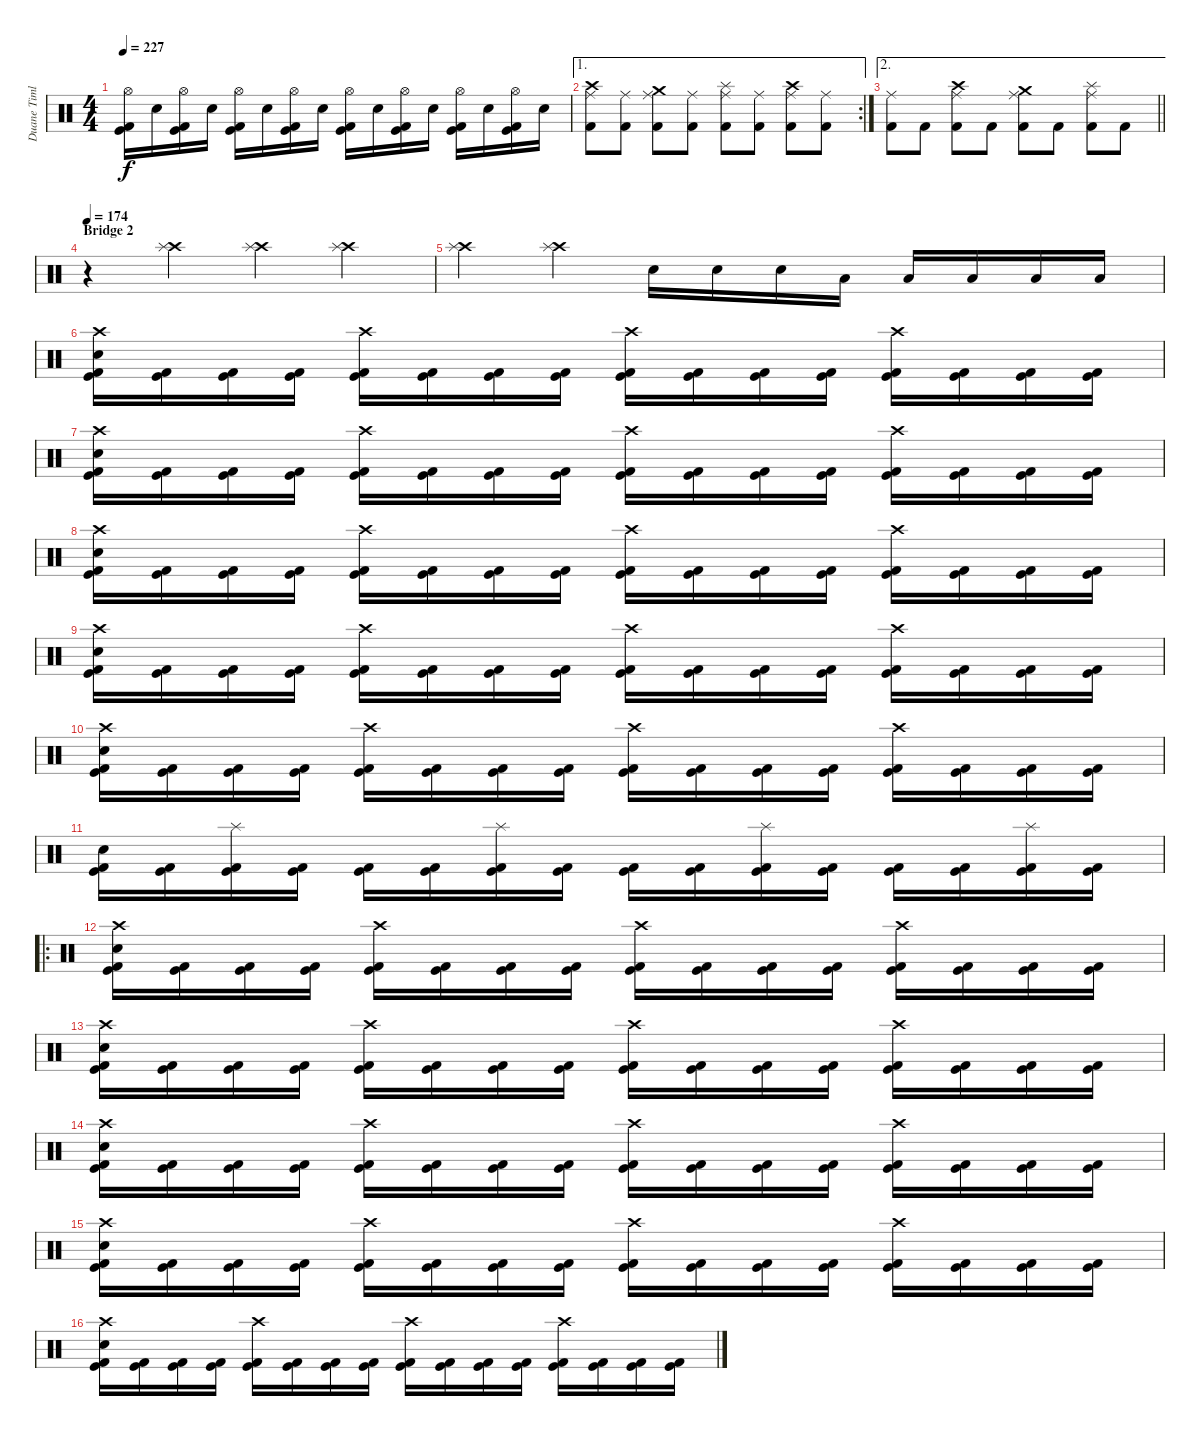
\track ("Duane Timlin" "Duane Timl") {instrument percussion}
\staff {score}
\articulation defaults
\ts (4 4)
\tempo 227
\clef neutral
\ks c
("Hi-Hat (open)" "Kick (hit)" "Kick (hit) 2").16{dy f} "Snare (hit) 2".16 ("Hi-Hat (open)" "Kick (hit)" "Kick (hit) 2").16 "Snare (hit) 2".16 ("Hi-Hat (open)" "Kick (hit)" "Kick (hit) 2").16 "Snare (hit) 2".16 ("Hi-Hat (open)" "Kick (hit)" "Kick (hit) 2").16 "Snare (hit) 2".16 ("Hi-Hat (open)" "Kick (hit)" "Kick (hit) 2").16 "Snare (hit) 2".16 ("Hi-Hat (open)" "Kick (hit)" "Kick (hit) 2").16 "Snare (hit) 2".16 ("Hi-Hat (open)" "Kick (hit)" "Kick (hit) 2").16 "Snare (hit) 2".16 ("Hi-Hat (open)" "Kick (hit)" "Kick (hit) 2").16 "Snare (hit) 2".16 |
\ae 1
\rc 2
("Crash high (hit)" "Ride (middle)" "Kick (hit) 2").8 ("Ride (middle)" "Kick (hit) 2").8 ("Crash medium (hit)" "Ride (middle)" "Kick (hit) 2").8 ("Ride (middle)" "Kick (hit) 2").8 ("Splash (hit)" "Ride (middle)" "Kick (hit) 2").8 ("Ride (middle)" "Kick (hit) 2").8 ("Crash high (hit)" "Ride (middle)" "Kick (hit) 2").8 ("Ride (middle)" "Kick (hit) 2").8 |
\ae 2
\barLineRight lightlight
("Ride (middle)" "Kick (hit) 2").8 "Kick (hit) 2".8 ("Crash high (hit)" "Ride (middle)" "Kick (hit) 2").8 "Kick (hit) 2".8 ("Crash medium (hit)" "Ride (middle)" "Kick (hit) 2").8 "Kick (hit) 2".8 ("Splash (hit)" "Ride (middle)" "Kick (hit) 2").8 "Kick (hit) 2".8 |
\section ("" "Bridge 2")
\tempo 174
r.4 ("Crash high (hit)" "Splash (hit)").4 ("Crash high (hit)" "Splash (hit)").4 ("Crash high (hit)" "Splash (hit)").4 |
("Crash high (hit)" "Splash (hit)").4 ("Crash high (hit)" "Splash (hit)").4 "Snare (hit) 2".16 "Snare (hit) 2".16 "Snare (hit) 2".16 "Low Floor Tom (hit)".16 "Low Floor Tom (hit)".16 "Low Floor Tom (hit)".16 "Low Floor Tom (hit)".16 "Low Floor Tom (hit)".16 |
("Crash high (hit)" "Snare (hit) 2" "Kick (hit)" "Kick (hit) 2").16 ("Kick (hit)" "Kick (hit) 2").16 ("Kick (hit)" "Kick (hit) 2").16 ("Kick (hit)" "Kick (hit) 2").16 ("Crash high (hit)" "Kick (hit)" "Kick (hit) 2").16 ("Kick (hit)" "Kick (hit) 2").16 ("Kick (hit)" "Kick (hit) 2").16 ("Kick (hit)" "Kick (hit) 2").16 ("Crash high (hit)" "Kick (hit)" "Kick (hit) 2").16 ("Kick (hit)" "Kick (hit) 2").16 ("Kick (hit)" "Kick (hit) 2").16 ("Kick (hit)" "Kick (hit) 2").16 ("Crash high (hit)" "Kick (hit)" "Kick (hit) 2").16 ("Kick (hit)" "Kick (hit) 2").16 ("Kick (hit)" "Kick (hit) 2").16 ("Kick (hit)" "Kick (hit) 2").16 |
("Crash high (hit)" "Snare (hit) 2" "Kick (hit)" "Kick (hit) 2").16 ("Kick (hit)" "Kick (hit) 2").16 ("Kick (hit)" "Kick (hit) 2").16 ("Kick (hit)" "Kick (hit) 2").16 ("Crash high (hit)" "Kick (hit)" "Kick (hit) 2").16 ("Kick (hit)" "Kick (hit) 2").16 ("Kick (hit)" "Kick (hit) 2").16 ("Kick (hit)" "Kick (hit) 2").16 ("Crash high (hit)" "Kick (hit)" "Kick (hit) 2").16 ("Kick (hit)" "Kick (hit) 2").16 ("Kick (hit)" "Kick (hit) 2").16 ("Kick (hit)" "Kick (hit) 2").16 ("Crash high (hit)" "Kick (hit)" "Kick (hit) 2").16 ("Kick (hit)" "Kick (hit) 2").16 ("Kick (hit)" "Kick (hit) 2").16 ("Kick (hit)" "Kick (hit) 2").16 |
("Crash high (hit)" "Snare (hit) 2" "Kick (hit)" "Kick (hit) 2").16 ("Kick (hit)" "Kick (hit) 2").16 ("Kick (hit)" "Kick (hit) 2").16 ("Kick (hit)" "Kick (hit) 2").16 ("Crash high (hit)" "Kick (hit)" "Kick (hit) 2").16 ("Kick (hit)" "Kick (hit) 2").16 ("Kick (hit)" "Kick (hit) 2").16 ("Kick (hit)" "Kick (hit) 2").16 ("Crash high (hit)" "Kick (hit)" "Kick (hit) 2").16 ("Kick (hit)" "Kick (hit) 2").16 ("Kick (hit)" "Kick (hit) 2").16 ("Kick (hit)" "Kick (hit) 2").16 ("Crash high (hit)" "Kick (hit)" "Kick (hit) 2").16 ("Kick (hit)" "Kick (hit) 2").16 ("Kick (hit)" "Kick (hit) 2").16 ("Kick (hit)" "Kick (hit) 2").16 |
("Crash high (hit)" "Snare (hit) 2" "Kick (hit)" "Kick (hit) 2").16 ("Kick (hit)" "Kick (hit) 2").16 ("Kick (hit)" "Kick (hit) 2").16 ("Kick (hit)" "Kick (hit) 2").16 ("Crash high (hit)" "Kick (hit)" "Kick (hit) 2").16 ("Kick (hit)" "Kick (hit) 2").16 ("Kick (hit)" "Kick (hit) 2").16 ("Kick (hit)" "Kick (hit) 2").16 ("Crash high (hit)" "Kick (hit)" "Kick (hit) 2").16 ("Kick (hit)" "Kick (hit) 2").16 ("Kick (hit)" "Kick (hit) 2").16 ("Kick (hit)" "Kick (hit) 2").16 ("Crash high (hit)" "Kick (hit)" "Kick (hit) 2").16 ("Kick (hit)" "Kick (hit) 2").16 ("Kick (hit)" "Kick (hit) 2").16 ("Kick (hit)" "Kick (hit) 2").16 |
("Crash high (hit)" "Snare (hit) 2" "Kick (hit)" "Kick (hit) 2").16 ("Kick (hit)" "Kick (hit) 2").16 ("Kick (hit)" "Kick (hit) 2").16 ("Kick (hit)" "Kick (hit) 2").16 ("Crash high (hit)" "Kick (hit)" "Kick (hit) 2").16 ("Kick (hit)" "Kick (hit) 2").16 ("Kick (hit)" "Kick (hit) 2").16 ("Kick (hit)" "Kick (hit) 2").16 ("Crash high (hit)" "Kick (hit)" "Kick (hit) 2").16 ("Kick (hit)" "Kick (hit) 2").16 ("Kick (hit)" "Kick (hit) 2").16 ("Kick (hit)" "Kick (hit) 2").16 ("Crash high (hit)" "Kick (hit)" "Kick (hit) 2").16 ("Kick (hit)" "Kick (hit) 2").16 ("Kick (hit)" "Kick (hit) 2").16 ("Kick (hit)" "Kick (hit) 2").16 |
("Snare (hit) 2" "Kick (hit)" "Kick (hit) 2").16 ("Kick (hit)" "Kick (hit) 2").16 ("Splash (hit)" "Kick (hit)" "Kick (hit) 2").16 ("Kick (hit)" "Kick (hit) 2").16 ("Kick (hit)" "Kick (hit) 2").16 ("Kick (hit)" "Kick (hit) 2").16 ("Splash (hit)" "Kick (hit)" "Kick (hit) 2").16 ("Kick (hit)" "Kick (hit) 2").16 ("Kick (hit)" "Kick (hit) 2").16 ("Kick (hit)" "Kick (hit) 2").16 ("Splash (hit)" "Kick (hit)" "Kick (hit) 2").16 ("Kick (hit)" "Kick (hit) 2").16 ("Kick (hit)" "Kick (hit) 2").16 ("Kick (hit)" "Kick (hit) 2").16 ("Splash (hit)" "Kick (hit)" "Kick (hit) 2").16 ("Kick (hit)" "Kick (hit) 2").16 |
\ro
("Crash high (hit)" "Snare (hit) 2" "Kick (hit)" "Kick (hit) 2").16 ("Kick (hit)" "Kick (hit) 2").16 ("Kick (hit)" "Kick (hit) 2").16 ("Kick (hit)" "Kick (hit) 2").16 ("Crash high (hit)" "Kick (hit)" "Kick (hit) 2").16 ("Kick (hit)" "Kick (hit) 2").16 ("Kick (hit)" "Kick (hit) 2").16 ("Kick (hit)" "Kick (hit) 2").16 ("Crash high (hit)" "Kick (hit)" "Kick (hit) 2").16 ("Kick (hit)" "Kick (hit) 2").16 ("Kick (hit)" "Kick (hit) 2").16 ("Kick (hit)" "Kick (hit) 2").16 ("Crash high (hit)" "Kick (hit)" "Kick (hit) 2").16 ("Kick (hit)" "Kick (hit) 2").16 ("Kick (hit)" "Kick (hit) 2").16 ("Kick (hit)" "Kick (hit) 2").16 |
("Crash high (hit)" "Snare (hit) 2" "Kick (hit)" "Kick (hit) 2").16 ("Kick (hit)" "Kick (hit) 2").16 ("Kick (hit)" "Kick (hit) 2").16 ("Kick (hit)" "Kick (hit) 2").16 ("Crash high (hit)" "Kick (hit)" "Kick (hit) 2").16 ("Kick (hit)" "Kick (hit) 2").16 ("Kick (hit)" "Kick (hit) 2").16 ("Kick (hit)" "Kick (hit) 2").16 ("Crash high (hit)" "Kick (hit)" "Kick (hit) 2").16 ("Kick (hit)" "Kick (hit) 2").16 ("Kick (hit)" "Kick (hit) 2").16 ("Kick (hit)" "Kick (hit) 2").16 ("Crash high (hit)" "Kick (hit)" "Kick (hit) 2").16 ("Kick (hit)" "Kick (hit) 2").16 ("Kick (hit)" "Kick (hit) 2").16 ("Kick (hit)" "Kick (hit) 2").16 |
("Crash high (hit)" "Snare (hit) 2" "Kick (hit)" "Kick (hit) 2").16 ("Kick (hit)" "Kick (hit) 2").16 ("Kick (hit)" "Kick (hit) 2").16 ("Kick (hit)" "Kick (hit) 2").16 ("Crash high (hit)" "Kick (hit)" "Kick (hit) 2").16 ("Kick (hit)" "Kick (hit) 2").16 ("Kick (hit)" "Kick (hit) 2").16 ("Kick (hit)" "Kick (hit) 2").16 ("Crash high (hit)" "Kick (hit)" "Kick (hit) 2").16 ("Kick (hit)" "Kick (hit) 2").16 ("Kick (hit)" "Kick (hit) 2").16 ("Kick (hit)" "Kick (hit) 2").16 ("Crash high (hit)" "Kick (hit)" "Kick (hit) 2").16 ("Kick (hit)" "Kick (hit) 2").16 ("Kick (hit)" "Kick (hit) 2").16 ("Kick (hit)" "Kick (hit) 2").16 |
("Crash high (hit)" "Snare (hit) 2" "Kick (hit)" "Kick (hit) 2").16 ("Kick (hit)" "Kick (hit) 2").16 ("Kick (hit)" "Kick (hit) 2").16 ("Kick (hit)" "Kick (hit) 2").16 ("Crash high (hit)" "Kick (hit)" "Kick (hit) 2").16 ("Kick (hit)" "Kick (hit) 2").16 ("Kick (hit)" "Kick (hit) 2").16 ("Kick (hit)" "Kick (hit) 2").16 ("Crash high (hit)" "Kick (hit)" "Kick (hit) 2").16 ("Kick (hit)" "Kick (hit) 2").16 ("Kick (hit)" "Kick (hit) 2").16 ("Kick (hit)" "Kick (hit) 2").16 ("Crash high (hit)" "Kick (hit)" "Kick (hit) 2").16 ("Kick (hit)" "Kick (hit) 2").16 ("Kick (hit)" "Kick (hit) 2").16 ("Kick (hit)" "Kick (hit) 2").16 |
("Crash high (hit)" "Snare (hit) 2" "Kick (hit)" "Kick (hit) 2").16 ("Kick (hit)" "Kick (hit) 2").16 ("Kick (hit)" "Kick (hit) 2").16 ("Kick (hit)" "Kick (hit) 2").16 ("Crash high (hit)" "Kick (hit)" "Kick (hit) 2").16 ("Kick (hit)" "Kick (hit) 2").16 ("Kick (hit)" "Kick (hit) 2").16 ("Kick (hit)" "Kick (hit) 2").16 ("Crash high (hit)" "Kick (hit)" "Kick (hit) 2").16 ("Kick (hit)" "Kick (hit) 2").16 ("Kick (hit)" "Kick (hit) 2").16 ("Kick (hit)" "Kick (hit) 2").16 ("Crash high (hit)" "Kick (hit)" "Kick (hit) 2").16 ("Kick (hit)" "Kick (hit) 2").16 ("Kick (hit)" "Kick (hit) 2").16 ("Kick (hit)" "Kick (hit) 2").16
